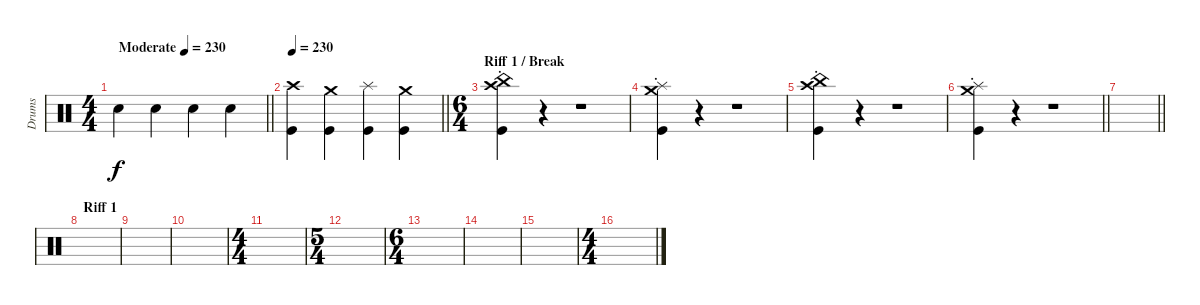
\track ("Drums" "Drums") {instrument percussion}
\staff {score}
\articulation defaults
\ts (4 4)
\tempo (230 "Moderate")
\clef neutral
\barLineRight lightlight
\ks c "Electric Snare (hit)".4{dy f} "Electric Snare (hit)".4 "Electric Snare (hit)".4 "Electric Snare (hit)".4
|
\section ("" "")
\tempo 230
\barLineRight lightlight
("Crash high (hit)" "Kick (hit)").4 ("Crash medium (hit)" "Kick (hit)").4 ("Splash (hit)" "Kick (hit)").4 ("Crash medium (hit)" "Kick (hit)").4 |
\ts (6 4)
\section ("" "Riff 1 / Break")
("Crash high (hit)"{st} "China (hit)"{st} "Kick (hit)"{st}).4 r.4 r.1 |
("Crash medium (hit)"{st} "Splash (hit)"{st} "Kick (hit)"{st}).4 r.4 r.1 |
("Crash high (hit)"{st} "China (hit)"{st} "Kick (hit)"{st}).4 r.4 r.1 |
\barLineRight lightlight
("Crash medium (hit)"{st} "Splash (hit)"{st} "Kick (hit)"{st}).4 r.4 r.1 |
\section ("" "")
\barLineRight lightlight
|
\section ("" "Riff 1")
|
|
|
\ts (4 4)
|
\ts (5 4)
|
\ts (6 4)
|
|
|
\ts (4 4)
